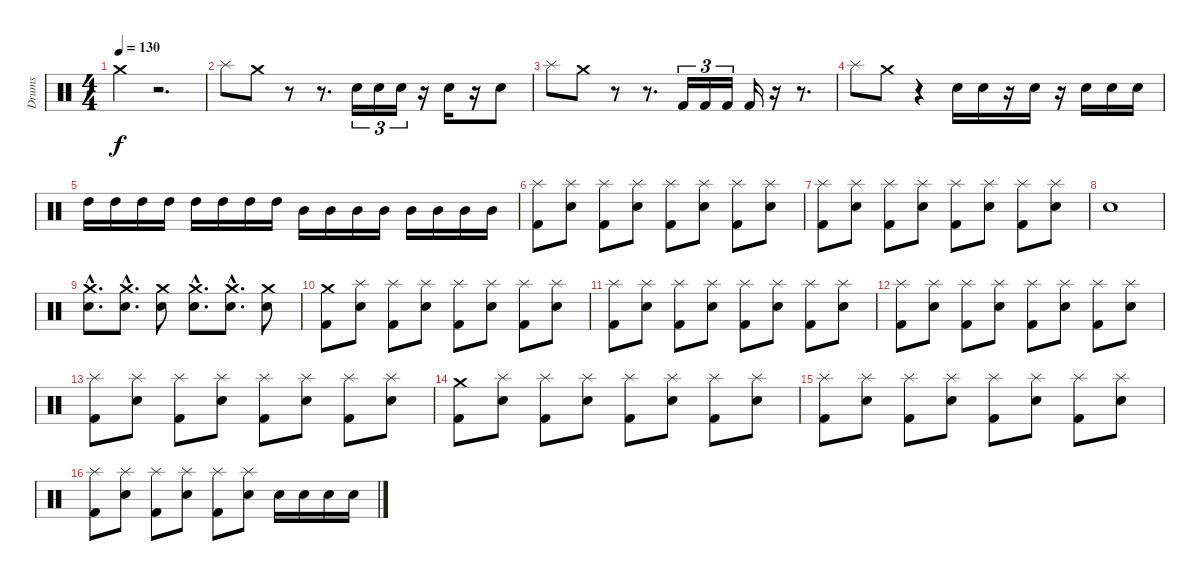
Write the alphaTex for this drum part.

\track ("Drums" "Drums") {instrument percussion}
\staff {score}
\articulation defaults
\ts (4 4)
\tempo 130
\clef neutral
\ks c "Crash medium (hit)".4{dy f}
r.2{d} |
"Splash (hit)".8 "Crash medium (hit)".8 r.8 r.8{d} "Snare (hit) 2".16{tu (3 2)} "Snare (hit) 2".16{tu (3 2)} "Snare (hit) 2".16{tu (3 2)} r.16 "Snare (hit) 2".16 r.16 "Snare (hit) 2".8 |
"Splash (hit)".8 "Crash medium (hit)".8 r.8 r.8{d} "Kick (hit) 2".16{tu (3 2)} "Kick (hit) 2".16{tu (3 2)} "Kick (hit) 2".16{tu (3 2)} "Kick (hit) 2".16 r.16 r.8{d} |
"Splash (hit)".8 "Crash medium (hit)".8 r.4 "Snare (hit) 2".16 "Snare (hit) 2".16 r.16 "Snare (hit) 2".16 r.16 "Snare (hit) 2".16 "Snare (hit) 2".16 "Snare (hit) 2".16 |
"High Tom (hit)".16 "High Tom (hit)".16 "High Tom (hit)".16 "High Tom (hit)".16 "High Tom (hit)".16 "High Tom (hit)".16 "High Tom (hit)".16 "High Tom (hit)".16 "Mid Tom (hit)".16 "Mid Tom (hit)".16 "Mid Tom (hit)".16 "Mid Tom (hit)".16 "Mid Tom (hit)".16 "Mid Tom (hit)".16 "Mid Tom (hit)".16 "Mid Tom (hit)".16 |
("Splash (hit)" "Kick (hit) 2").8 ("Splash (hit)" "Electric Snare (hit)").8 ("Splash (hit)" "Kick (hit) 2").8 ("Splash (hit)" "Electric Snare (hit)").8 ("Splash (hit)" "Kick (hit) 2").8 ("Splash (hit)" "Electric Snare (hit)").8 ("Splash (hit)" "Kick (hit) 2").8 ("Splash (hit)" "Electric Snare (hit)").8 |
("Splash (hit)" "Kick (hit) 2").8 ("Splash (hit)" "Electric Snare (hit)").8 ("Splash (hit)" "Kick (hit) 2").8 ("Splash (hit)" "Electric Snare (hit)").8 ("Splash (hit)" "Kick (hit) 2").8 ("Splash (hit)" "Electric Snare (hit)").8 ("Splash (hit)" "Kick (hit) 2").8 ("Splash (hit)" "Electric Snare (hit)").8 |
"Electric Snare (hit)".1 |
("Crash medium (hit)"{hac} "Electric Snare (hit)"{hac}).8{d} ("Crash medium (hit)"{hac} "Electric Snare (hit)"{hac}).8{d} ("Crash medium (hit)" "Electric Snare (hit)").8 ("Crash medium (hit)"{hac} "Electric Snare (hit)"{hac}).8{d} ("Crash medium (hit)"{hac} "Electric Snare (hit)"{hac}).8{d} ("Crash medium (hit)" "Electric Snare (hit)").8 |
("Crash medium (hit)" "Kick (hit) 2").8 ("Splash (hit)" "Electric Snare (hit)").8 ("Splash (hit)" "Kick (hit) 2").8 ("Splash (hit)" "Electric Snare (hit)").8 ("Splash (hit)" "Kick (hit) 2").8 ("Splash (hit)" "Electric Snare (hit)").8 ("Splash (hit)" "Kick (hit) 2").8 ("Splash (hit)" "Electric Snare (hit)").8 |
("Splash (hit)" "Kick (hit) 2").8 ("Splash (hit)" "Electric Snare (hit)").8 ("Splash (hit)" "Kick (hit) 2").8 ("Splash (hit)" "Electric Snare (hit)").8 ("Splash (hit)" "Kick (hit) 2").8 ("Splash (hit)" "Electric Snare (hit)").8 ("Splash (hit)" "Kick (hit) 2").8 ("Splash (hit)" "Electric Snare (hit)").8 |
("Splash (hit)" "Kick (hit) 2").8 ("Splash (hit)" "Electric Snare (hit)").8 ("Splash (hit)" "Kick (hit) 2").8 ("Splash (hit)" "Electric Snare (hit)").8 ("Splash (hit)" "Kick (hit) 2").8 ("Splash (hit)" "Electric Snare (hit)").8 ("Splash (hit)" "Kick (hit) 2").8 ("Splash (hit)" "Electric Snare (hit)").8 |
("Splash (hit)" "Kick (hit) 2").8 ("Splash (hit)" "Electric Snare (hit)").8 ("Splash (hit)" "Kick (hit) 2").8 ("Splash (hit)" "Electric Snare (hit)").8 ("Splash (hit)" "Kick (hit) 2").8 ("Splash (hit)" "Electric Snare (hit)").8 ("Splash (hit)" "Kick (hit) 2").8 ("Splash (hit)" "Electric Snare (hit)").8 |
("Crash medium (hit)" "Kick (hit) 2").8 ("Splash (hit)" "Electric Snare (hit)").8 ("Splash (hit)" "Kick (hit) 2").8 ("Splash (hit)" "Electric Snare (hit)").8 ("Splash (hit)" "Kick (hit) 2").8 ("Splash (hit)" "Electric Snare (hit)").8 ("Splash (hit)" "Kick (hit) 2").8 ("Splash (hit)" "Electric Snare (hit)").8 |
("Splash (hit)" "Kick (hit) 2").8 ("Splash (hit)" "Electric Snare (hit)").8 ("Splash (hit)" "Kick (hit) 2").8 ("Splash (hit)" "Electric Snare (hit)").8 ("Splash (hit)" "Kick (hit) 2").8 ("Splash (hit)" "Electric Snare (hit)").8 ("Splash (hit)" "Kick (hit) 2").8 ("Splash (hit)" "Electric Snare (hit)").8 |
("Splash (hit)" "Kick (hit) 2").8 ("Splash (hit)" "Electric Snare (hit)").8 ("Splash (hit)" "Kick (hit) 2").8 ("Splash (hit)" "Electric Snare (hit)").8 ("Splash (hit)" "Kick (hit) 2").8 ("Splash (hit)" "Electric Snare (hit)").8 "Electric Snare (hit)".16 "Electric Snare (hit)".16 "Electric Snare (hit)".16 "Electric Snare (hit)".16
